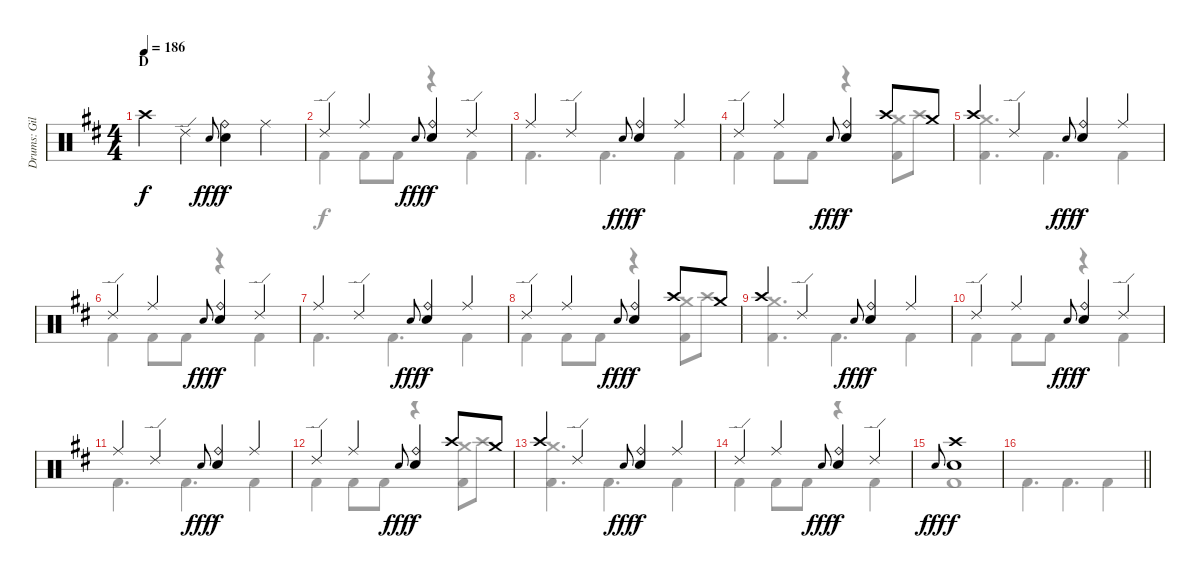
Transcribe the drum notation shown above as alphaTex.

\track ("Drums: Gil" "Drums: Gil") {instrument percussion}
\staff {score}
\articulation defaults
\voice
\ts (4 4)
\section ("" "D")
\tempo 186
\clef neutral
\ks d "Crash high (hit)".4{dy f} "Ride (edge) 2".4 "Electric Snare (hit)".8{gr onbeat dy fff}
("Ride (bell)" "Snare (hit) 2").4{dy f} "Ride (middle)".4 |
"Ride (edge) 2".4 "Ride (middle)".4 "Electric Snare (hit)".8{gr onbeat dy fff} ("Ride (bell)" "Snare (hit) 2").4{dy f} "Ride (edge) 2".4 |
"Ride (middle)".4 "Ride (edge) 2".4 "Electric Snare (hit)".8{gr onbeat dy fff} ("Ride (bell)" "Snare (hit) 2").4{dy f} "Ride (middle)".4 |
"Ride (edge) 2".4 "Ride (middle)".4 "Electric Snare (hit)".8{gr onbeat dy fff} ("Ride (bell)" "Snare (hit) 2").4{dy f} "Crash high (hit)".8 "Crash medium (hit)".8 |
"Crash high (hit)".4 "Ride (edge) 2".4 "Electric Snare (hit)".8{gr onbeat dy fff} ("Ride (bell)" "Snare (hit) 2").4{dy f} "Ride (middle)".4 |
"Ride (edge) 2".4 "Ride (middle)".4 "Electric Snare (hit)".8{gr onbeat dy fff} ("Ride (bell)" "Snare (hit) 2").4{dy f} "Ride (edge) 2".4 |
"Ride (middle)".4 "Ride (edge) 2".4 "Electric Snare (hit)".8{gr onbeat dy fff} ("Ride (bell)" "Snare (hit) 2").4{dy f} "Ride (middle)".4 |
"Ride (edge) 2".4 "Ride (middle)".4 "Electric Snare (hit)".8{gr onbeat dy fff} ("Ride (bell)" "Snare (hit) 2").4{dy f} "Crash high (hit)".8 "Crash medium (hit)".8 |
"Crash high (hit)".4 "Ride (edge) 2".4 "Electric Snare (hit)".8{gr onbeat dy fff} ("Ride (bell)" "Snare (hit) 2").4{dy f} "Ride (middle)".4 |
"Ride (edge) 2".4 "Ride (middle)".4 "Electric Snare (hit)".8{gr onbeat dy fff} ("Ride (bell)" "Snare (hit) 2").4{dy f} "Ride (edge) 2".4 |
"Ride (middle)".4 "Ride (edge) 2".4 "Electric Snare (hit)".8{gr onbeat dy fff} ("Ride (bell)" "Snare (hit) 2").4{dy f} "Ride (middle)".4 |
"Ride (edge) 2".4 "Ride (middle)".4 "Electric Snare (hit)".8{gr onbeat dy fff} ("Ride (bell)" "Snare (hit) 2").4{dy f} "Crash high (hit)".8 "Crash medium (hit)".8 |
"Crash high (hit)".4 "Ride (edge) 2".4 "Electric Snare (hit)".8{gr onbeat dy fff} ("Ride (bell)" "Snare (hit) 2").4{dy f} "Ride (middle)".4 |
"Ride (edge) 2".4 "Ride (middle)".4 "Electric Snare (hit)".8{gr onbeat dy fff} ("Ride (bell)" "Snare (hit) 2").4{dy f} "Ride (edge) 2".4 |
"Electric Snare (hit)".8{gr onbeat dy fff} ("Crash high (hit)" "Snare (hit) 2").1{dy f} |
\barLineRight lightlight
\voice
\clef neutral
\ottava regular
\simile none
\ks d "Kick (hit) 2".4{d dy f} "Kick (hit) 2".4{d} "Kick (hit) 2".4
|
"Kick (hit) 2".4 "Kick (hit) 2".8 "Kick (hit) 2".8 r.4 "Kick (hit) 2".4 |
"Kick (hit) 2".4{d} "Kick (hit) 2".4{d} "Kick (hit) 2".4 |
"Kick (hit) 2".4 "Kick (hit) 2".8 "Kick (hit) 2".8 r.4 ("Crash medium (hit)" "Kick (hit) 2").8 "Crash high (hit)".8 |
("Crash medium (hit)" "Kick (hit) 2").4{d} "Kick (hit) 2".4{d} "Kick (hit) 2".4 |
"Kick (hit) 2".4 "Kick (hit) 2".8 "Kick (hit) 2".8 r.4 "Kick (hit) 2".4 |
"Kick (hit) 2".4{d} "Kick (hit) 2".4{d} "Kick (hit) 2".4 |
"Kick (hit) 2".4 "Kick (hit) 2".8 "Kick (hit) 2".8 r.4 ("Crash medium (hit)" "Kick (hit) 2").8 "Crash high (hit)".8 |
("Crash medium (hit)" "Kick (hit) 2").4{d} "Kick (hit) 2".4{d} "Kick (hit) 2".4 |
"Kick (hit) 2".4 "Kick (hit) 2".8 "Kick (hit) 2".8 r.4 "Kick (hit) 2".4 |
"Kick (hit) 2".4{d} "Kick (hit) 2".4{d} "Kick (hit) 2".4 |
"Kick (hit) 2".4 "Kick (hit) 2".8 "Kick (hit) 2".8 r.4 ("Crash medium (hit)" "Kick (hit) 2").8 "Crash high (hit)".8 |
("Crash medium (hit)" "Kick (hit) 2").4{d} "Kick (hit) 2".4{d} "Kick (hit) 2".4 |
"Kick (hit) 2".4 "Kick (hit) 2".8 "Kick (hit) 2".8 r.4 "Kick (hit) 2".4 |
"Kick (hit) 2".1 |
\barLineRight lightlight
